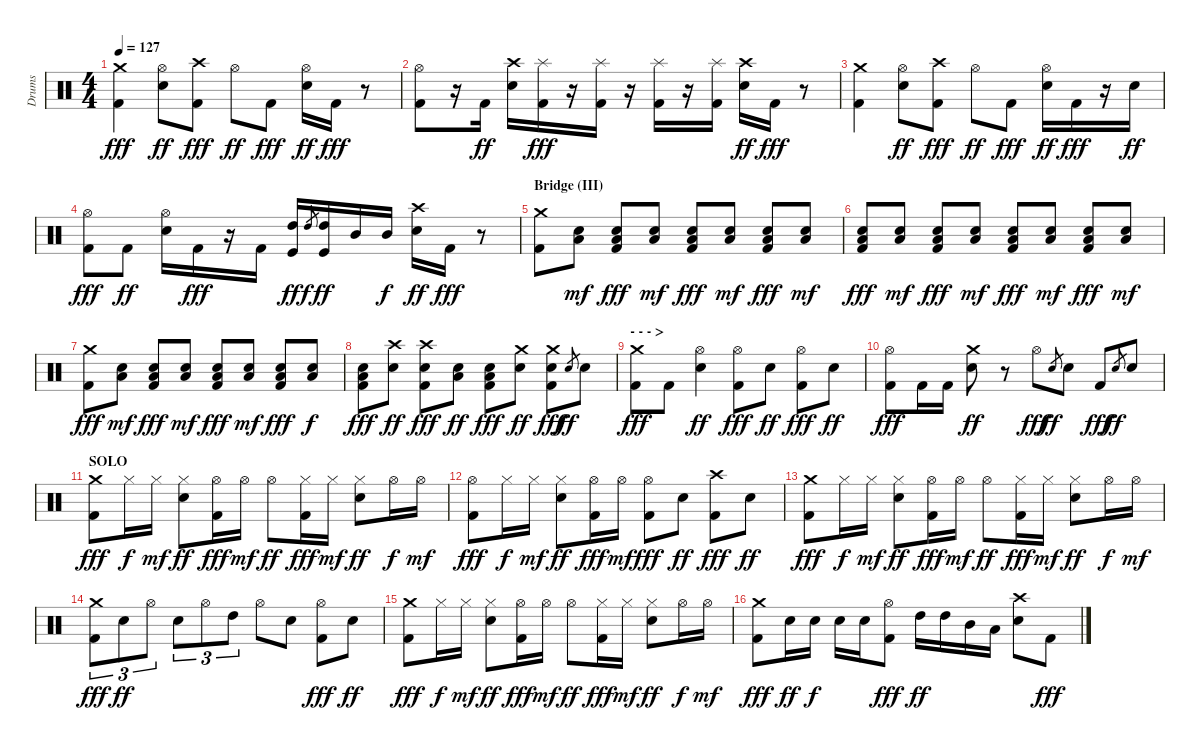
\track ("Drums" "Drums") {instrument percussion}
\staff {score}
\articulation defaults
\ts (4 4)
\tempo 127
\clef neutral
\ks c
("Crash medium (hit)" "Kick (hit) 2").4{dy fff} ("Hi-Hat (open)" "Snare (hit) 2").8{dy ff} ("Crash high (hit)" "Kick (hit) 2").8{dy fff} "Hi-Hat (open)".8{dy ff} "Kick (hit) 2".8{dy fff} ("Hi-Hat (open)" "Snare (hit) 2").16{dy ff} "Kick (hit) 2".16{dy fff} r.8 |
("Hi-Hat (open)" "Kick (hit) 2").8 r.16 "Kick (hit) 2".16{dy ff} ("Crash high (hit)" "Snare (hit) 2").16 ("Splash (hit)" "Kick (hit) 2").16{dy fff} r.16 ("Splash (hit)" "Kick (hit) 2").16 r.16 ("Splash (hit)" "Kick (hit) 2").16 r.16 ("Splash (hit)" "Kick (hit) 2").16 ("Crash high (hit)" "Snare (hit) 2").16{dy ff} "Kick (hit) 2".16{dy fff} r.8 |
("Crash medium (hit)" "Kick (hit) 2").4 ("Hi-Hat (open)" "Snare (hit) 2").8{dy ff} ("Crash high (hit)" "Kick (hit) 2").8{dy fff} "Hi-Hat (open)".8{dy ff} "Kick (hit) 2".8{dy fff} ("Hi-Hat (open)" "Snare (hit) 2").16{dy ff} "Kick (hit) 2".16{dy fff} r.16 "Snare (hit) 2".16{dy ff} |
("Hi-Hat (open)" "Kick (hit) 2").8{dy fff} "Kick (hit) 2".8{dy ff} ("Hi-Hat (open)" "Snare (hit) 2").16 "Kick (hit) 2".16{dy fff} r.16 "Kick (hit) 2".16 ("High Tom (hit)" "Kick (hit)").16{dy ff} "High Tom (hit)".8{gr dy f} ("High Tom (hit)" "Kick (hit)").16{dy ff} "Mid Tom (hit)".16 "Mid Tom (hit)".16{dy f} ("Crash high (hit)" "Snare (hit) 2").16{dy ff} "Kick (hit) 2".16{dy fff} r.8 |
\section ("" "Bridge (III)")
("Crash medium (hit)" "Kick (hit) 2").8 ("Snare (hit) 2" "Low Tom (hit)").8{dy mf} ("Snare (hit) 2" "Low Tom (hit)" "Kick (hit) 2").8{dy fff} ("Snare (hit) 2" "Low Tom (hit)").8{dy mf} ("Snare (hit) 2" "Low Tom (hit)" "Kick (hit) 2").8{dy fff} ("Snare (hit) 2" "Low Tom (hit)").8{dy mf} ("Snare (hit) 2" "Low Tom (hit)" "Kick (hit) 2").8{dy fff} ("Snare (hit) 2" "Low Tom (hit)").8{dy mf} |
("Snare (hit) 2" "Low Tom (hit)" "Kick (hit) 2").8{dy fff} ("Snare (hit) 2" "Low Tom (hit)").8{dy mf} ("Snare (hit) 2" "Low Tom (hit)" "Kick (hit) 2").8{dy fff} ("Snare (hit) 2" "Low Tom (hit)").8{dy mf} ("Snare (hit) 2" "Low Tom (hit)" "Kick (hit) 2").8{dy fff} ("Snare (hit) 2" "Low Tom (hit)").8{dy mf} ("Snare (hit) 2" "Low Tom (hit)" "Kick (hit) 2").8{dy fff} ("Snare (hit) 2" "Low Tom (hit)").8{dy mf} |
("Crash medium (hit)" "Kick (hit) 2").8{dy fff} ("Snare (hit) 2" "Low Tom (hit)").8{dy mf} ("Snare (hit) 2" "Low Tom (hit)" "Kick (hit) 2").8{dy fff} ("Snare (hit) 2" "Low Tom (hit)").8{dy mf} ("Snare (hit) 2" "Low Tom (hit)" "Kick (hit) 2").8{dy fff} ("Snare (hit) 2" "Low Tom (hit)").8{dy mf} ("Snare (hit) 2" "Low Tom (hit)" "Kick (hit) 2").8{dy fff} ("Snare (hit) 2" "Low Tom (hit)").8{dy f} |
("Snare (hit) 2" "Low Tom (hit)" "Kick (hit) 2").8{dy fff} ("Crash high (hit)" "Snare (hit) 2").8{dy ff} ("Crash high (hit)" "Snare (hit) 2" "Kick (hit) 2").8{dy fff} ("Snare (hit) 2" "Low Tom (hit)").8{dy ff} ("Snare (hit) 2" "Low Tom (hit)" "Kick (hit) 2").8{dy fff} ("Crash medium (hit)" "Snare (hit) 2").8{dy ff} ("Crash medium (hit)" "Snare (hit) 2" "Kick (hit) 2").8{dy fff} "Snare (hit) 2".8{gr dy ff} "Snare (hit) 2".8 |
\section ("" "- - - >")
("Crash medium (hit)" "Kick (hit) 2").8{dy fff} "Kick (hit) 2".8 ("Hi-Hat (open)" "Snare (hit) 2").4{dy ff} ("Hi-Hat (open)" "Kick (hit) 2").8{dy fff} "Snare (hit) 2".8{dy ff} ("Hi-Hat (open)" "Kick (hit) 2").8{dy fff} "Snare (hit) 2".8{dy ff} |
("Hi-Hat (open)" "Kick (hit) 2").8{dy fff} "Kick (hit) 2".16 "Kick (hit) 2".16 ("Crash medium (hit)" "Snare (hit) 2").8{dy ff} r.8 "Hi-Hat (open)".8{dy fff} "Snare (hit) 2".8{gr dy ff} "Snare (hit) 2".8 "Kick (hit) 2".8{dy fff} "Snare (hit) 2".8{gr dy ff} "Snare (hit) 2".8 |
\section ("" "SOLO")
("Crash medium (hit)" "Kick (hit) 2").8{dy fff} "Hi-Hat (closed)".16{dy f} "Hi-Hat (closed)".16{dy mf} ("Hi-Hat (closed)" "Snare (hit) 2").8{dy ff} ("Hi-Hat (open)" "Kick (hit) 2").16{dy fff} "Hi-Hat (open)".16{dy mf} "Hi-Hat (open)".8{dy ff} ("Hi-Hat (closed)" "Kick (hit) 2").16{dy fff} "Hi-Hat (closed)".16{dy mf} ("Hi-Hat (closed)" "Snare (hit) 2").8{dy ff} "Hi-Hat (open)".16{dy f} "Hi-Hat (open)".16{dy mf} |
("Hi-Hat (open)" "Kick (hit) 2").8{dy fff} "Hi-Hat (closed)".16{dy f} "Hi-Hat (closed)".16{dy mf} ("Hi-Hat (closed)" "Snare (hit) 2").8{dy ff} ("Hi-Hat (open)" "Kick (hit) 2").16{dy fff} "Hi-Hat (open)".16{dy mf} ("Hi-Hat (open)" "Kick (hit) 2").8{dy fff} "Snare (hit) 2".8{dy ff} ("Crash high (hit)" "Kick (hit) 2").8{dy fff} "Snare (hit) 2".8{dy ff} |
("Crash medium (hit)" "Kick (hit) 2").8{dy fff} "Hi-Hat (closed)".16{dy f} "Hi-Hat (closed)".16{dy mf} ("Hi-Hat (closed)" "Snare (hit) 2").8{dy ff} ("Hi-Hat (open)" "Kick (hit) 2").16{dy fff} "Hi-Hat (open)".16{dy mf} "Hi-Hat (open)".8{dy ff} ("Hi-Hat (closed)" "Kick (hit) 2").16{dy fff} "Hi-Hat (closed)".16{dy mf} ("Hi-Hat (closed)" "Snare (hit) 2").8{dy ff} "Hi-Hat (open)".16{dy f} "Hi-Hat (open)".16{dy mf} |
("Crash medium (hit)" "Kick (hit) 2").8{tu (3 2) dy fff} "Snare (hit) 2".8{tu (3 2) dy ff} "Hi-Hat (open)".8{tu (3 2)} "Snare (hit) 2".8{tu (3 2)} "Hi-Hat (open)".8{tu (3 2)} "High Tom (hit)".8{tu (3 2)} "Hi-Hat (open)".8 "Snare (hit) 2".8 ("Hi-Hat (open)" "Kick (hit) 2").8{dy fff} "Snare (hit) 2".8{dy ff} |
("Crash medium (hit)" "Kick (hit) 2").8{dy fff} "Hi-Hat (closed)".16{dy f} "Hi-Hat (closed)".16{dy mf} ("Hi-Hat (closed)" "Snare (hit) 2").8{dy ff} ("Hi-Hat (open)" "Kick (hit) 2").16{dy fff} "Hi-Hat (open)".16{dy mf} "Hi-Hat (open)".8{dy ff} ("Hi-Hat (closed)" "Kick (hit) 2").16{dy fff} "Hi-Hat (closed)".16{dy mf} ("Hi-Hat (closed)" "Snare (hit) 2").8{dy ff} "Hi-Hat (open)".16{dy f} "Hi-Hat (open)".16{dy mf} |
("Crash medium (hit)" "Kick (hit) 2").8{dy fff} "Snare (hit) 2".16{dy ff} "Snare (hit) 2".16{dy f} "Snare (hit) 2".16 "Snare (hit) 2".16 ("Hi-Hat (open)" "Kick (hit) 2").8{dy fff} "High Tom (hit)".16{dy ff} "High Tom (hit)".16 "Mid Tom (hit)".16 "Low Tom (hit)".16 ("Crash high (hit)" "Snare (hit) 2").8 "Kick (hit) 2".8{dy fff}
